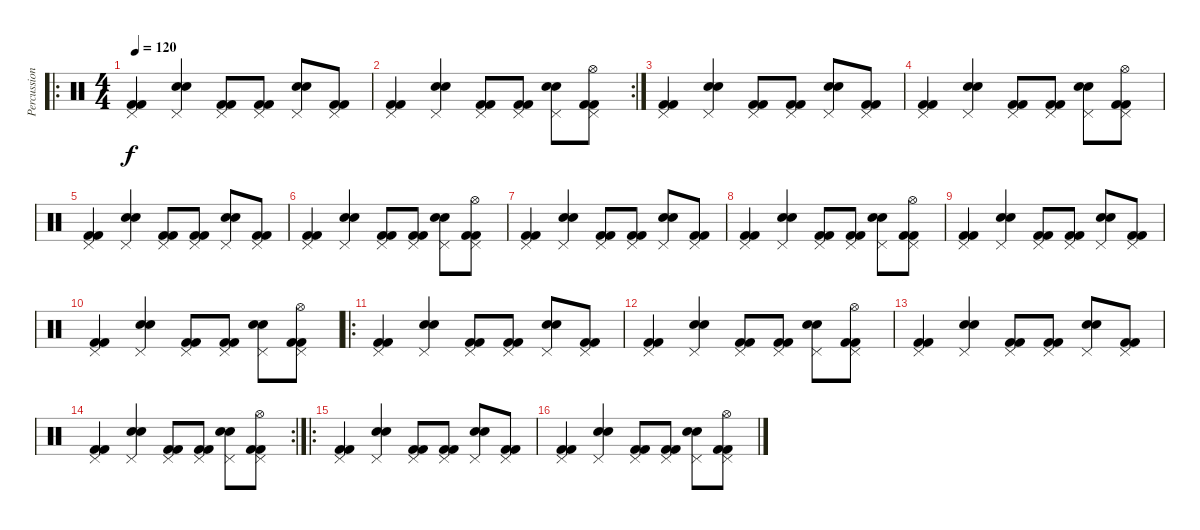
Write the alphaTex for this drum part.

\track ("Percussion" "Percussion") {instrument percussion}
\staff {score}
\articulation defaults
\ro
\ts (4 4)
\tempo 120
\clef neutral
\ks c
("Kick (hit) 2" "Kick (hit) 2" "Pedal Hi-Hat (hit)").4{dy f} ("Snare (hit) 2" "Snare (hit) 2" "Pedal Hi-Hat (hit)").4 ("Kick (hit) 2" "Kick (hit) 2" "Pedal Hi-Hat (hit)").8 ("Kick (hit) 2" "Kick (hit) 2" "Pedal Hi-Hat (hit)").8 ("Snare (hit) 2" "Snare (hit) 2" "Pedal Hi-Hat (hit)").8 ("Kick (hit) 2" "Kick (hit) 2" "Pedal Hi-Hat (hit)").8 |
\rc 2
("Kick (hit) 2" "Kick (hit) 2" "Pedal Hi-Hat (hit)").4 ("Snare (hit) 2" "Snare (hit) 2" "Pedal Hi-Hat (hit)").4 ("Kick (hit) 2" "Kick (hit) 2" "Pedal Hi-Hat (hit)").8 ("Kick (hit) 2" "Kick (hit) 2" "Pedal Hi-Hat (hit)").8 ("Snare (hit) 2" "Snare (hit) 2" "Pedal Hi-Hat (hit)").8 ("Kick (hit) 2" "Kick (hit) 2" "Hi-Hat (open)" "Pedal Hi-Hat (hit)").8 |
("Kick (hit) 2" "Kick (hit) 2" "Pedal Hi-Hat (hit)").4 ("Snare (hit) 2" "Snare (hit) 2" "Pedal Hi-Hat (hit)").4 ("Kick (hit) 2" "Kick (hit) 2" "Pedal Hi-Hat (hit)").8 ("Kick (hit) 2" "Kick (hit) 2" "Pedal Hi-Hat (hit)").8 ("Snare (hit) 2" "Snare (hit) 2" "Pedal Hi-Hat (hit)").8 ("Kick (hit) 2" "Kick (hit) 2" "Pedal Hi-Hat (hit)").8 |
("Kick (hit) 2" "Kick (hit) 2" "Pedal Hi-Hat (hit)").4 ("Snare (hit) 2" "Snare (hit) 2" "Pedal Hi-Hat (hit)").4 ("Kick (hit) 2" "Kick (hit) 2" "Pedal Hi-Hat (hit)").8 ("Kick (hit) 2" "Kick (hit) 2" "Pedal Hi-Hat (hit)").8 ("Snare (hit) 2" "Snare (hit) 2" "Pedal Hi-Hat (hit)").8 ("Kick (hit) 2" "Kick (hit) 2" "Hi-Hat (open)" "Pedal Hi-Hat (hit)").8 |
("Kick (hit) 2" "Kick (hit) 2" "Pedal Hi-Hat (hit)").4 ("Snare (hit) 2" "Snare (hit) 2" "Pedal Hi-Hat (hit)").4 ("Kick (hit) 2" "Kick (hit) 2" "Pedal Hi-Hat (hit)").8 ("Kick (hit) 2" "Kick (hit) 2" "Pedal Hi-Hat (hit)").8 ("Snare (hit) 2" "Snare (hit) 2" "Pedal Hi-Hat (hit)").8 ("Kick (hit) 2" "Kick (hit) 2" "Pedal Hi-Hat (hit)").8 |
("Kick (hit) 2" "Kick (hit) 2" "Pedal Hi-Hat (hit)").4 ("Snare (hit) 2" "Snare (hit) 2" "Pedal Hi-Hat (hit)").4 ("Kick (hit) 2" "Kick (hit) 2" "Pedal Hi-Hat (hit)").8 ("Kick (hit) 2" "Kick (hit) 2" "Pedal Hi-Hat (hit)").8 ("Snare (hit) 2" "Snare (hit) 2" "Pedal Hi-Hat (hit)").8 ("Kick (hit) 2" "Kick (hit) 2" "Hi-Hat (open)" "Pedal Hi-Hat (hit)").8 |
("Kick (hit) 2" "Kick (hit) 2" "Pedal Hi-Hat (hit)").4 ("Snare (hit) 2" "Snare (hit) 2" "Pedal Hi-Hat (hit)").4 ("Kick (hit) 2" "Kick (hit) 2" "Pedal Hi-Hat (hit)").8 ("Kick (hit) 2" "Kick (hit) 2" "Pedal Hi-Hat (hit)").8 ("Snare (hit) 2" "Snare (hit) 2" "Pedal Hi-Hat (hit)").8 ("Kick (hit) 2" "Kick (hit) 2" "Pedal Hi-Hat (hit)").8 |
("Kick (hit) 2" "Kick (hit) 2" "Pedal Hi-Hat (hit)").4 ("Snare (hit) 2" "Snare (hit) 2" "Pedal Hi-Hat (hit)").4 ("Kick (hit) 2" "Kick (hit) 2" "Pedal Hi-Hat (hit)").8 ("Kick (hit) 2" "Kick (hit) 2" "Pedal Hi-Hat (hit)").8 ("Snare (hit) 2" "Snare (hit) 2" "Pedal Hi-Hat (hit)").8 ("Kick (hit) 2" "Kick (hit) 2" "Hi-Hat (open)" "Pedal Hi-Hat (hit)").8 |
("Kick (hit) 2" "Kick (hit) 2" "Pedal Hi-Hat (hit)").4 ("Snare (hit) 2" "Snare (hit) 2" "Pedal Hi-Hat (hit)").4 ("Kick (hit) 2" "Kick (hit) 2" "Pedal Hi-Hat (hit)").8 ("Kick (hit) 2" "Kick (hit) 2" "Pedal Hi-Hat (hit)").8 ("Snare (hit) 2" "Snare (hit) 2" "Pedal Hi-Hat (hit)").8 ("Kick (hit) 2" "Kick (hit) 2" "Pedal Hi-Hat (hit)").8 |
("Kick (hit) 2" "Kick (hit) 2" "Pedal Hi-Hat (hit)").4 ("Snare (hit) 2" "Snare (hit) 2" "Pedal Hi-Hat (hit)").4 ("Kick (hit) 2" "Kick (hit) 2" "Pedal Hi-Hat (hit)").8 ("Kick (hit) 2" "Kick (hit) 2" "Pedal Hi-Hat (hit)").8 ("Snare (hit) 2" "Snare (hit) 2" "Pedal Hi-Hat (hit)").8 ("Kick (hit) 2" "Kick (hit) 2" "Hi-Hat (open)" "Pedal Hi-Hat (hit)").8 |
\ro
("Kick (hit) 2" "Kick (hit) 2" "Pedal Hi-Hat (hit)").4 ("Snare (hit) 2" "Snare (hit) 2" "Pedal Hi-Hat (hit)").4 ("Kick (hit) 2" "Kick (hit) 2" "Pedal Hi-Hat (hit)").8 ("Kick (hit) 2" "Kick (hit) 2" "Pedal Hi-Hat (hit)").8 ("Snare (hit) 2" "Snare (hit) 2" "Pedal Hi-Hat (hit)").8 ("Kick (hit) 2" "Kick (hit) 2" "Pedal Hi-Hat (hit)").8 |
("Kick (hit) 2" "Kick (hit) 2" "Pedal Hi-Hat (hit)").4 ("Snare (hit) 2" "Snare (hit) 2" "Pedal Hi-Hat (hit)").4 ("Kick (hit) 2" "Kick (hit) 2" "Pedal Hi-Hat (hit)").8 ("Kick (hit) 2" "Kick (hit) 2" "Pedal Hi-Hat (hit)").8 ("Snare (hit) 2" "Snare (hit) 2" "Pedal Hi-Hat (hit)").8 ("Kick (hit) 2" "Kick (hit) 2" "Hi-Hat (open)" "Pedal Hi-Hat (hit)").8 |
("Kick (hit) 2" "Kick (hit) 2" "Pedal Hi-Hat (hit)").4 ("Snare (hit) 2" "Snare (hit) 2" "Pedal Hi-Hat (hit)").4 ("Kick (hit) 2" "Kick (hit) 2" "Pedal Hi-Hat (hit)").8 ("Kick (hit) 2" "Kick (hit) 2" "Pedal Hi-Hat (hit)").8 ("Snare (hit) 2" "Snare (hit) 2" "Pedal Hi-Hat (hit)").8 ("Kick (hit) 2" "Kick (hit) 2" "Pedal Hi-Hat (hit)").8 |
\rc 2
("Kick (hit) 2" "Kick (hit) 2" "Pedal Hi-Hat (hit)").4 ("Snare (hit) 2" "Snare (hit) 2" "Pedal Hi-Hat (hit)").4 ("Kick (hit) 2" "Kick (hit) 2" "Pedal Hi-Hat (hit)").8 ("Kick (hit) 2" "Kick (hit) 2" "Pedal Hi-Hat (hit)").8 ("Snare (hit) 2" "Snare (hit) 2" "Pedal Hi-Hat (hit)").8 ("Kick (hit) 2" "Kick (hit) 2" "Hi-Hat (open)" "Pedal Hi-Hat (hit)").8 |
\ro
("Kick (hit) 2" "Kick (hit) 2" "Pedal Hi-Hat (hit)").4 ("Snare (hit) 2" "Snare (hit) 2" "Pedal Hi-Hat (hit)").4 ("Kick (hit) 2" "Kick (hit) 2" "Pedal Hi-Hat (hit)").8 ("Kick (hit) 2" "Kick (hit) 2" "Pedal Hi-Hat (hit)").8 ("Snare (hit) 2" "Snare (hit) 2" "Pedal Hi-Hat (hit)").8 ("Kick (hit) 2" "Kick (hit) 2" "Pedal Hi-Hat (hit)").8 |
("Kick (hit) 2" "Kick (hit) 2" "Pedal Hi-Hat (hit)").4 ("Snare (hit) 2" "Snare (hit) 2" "Pedal Hi-Hat (hit)").4 ("Kick (hit) 2" "Kick (hit) 2" "Pedal Hi-Hat (hit)").8 ("Kick (hit) 2" "Kick (hit) 2" "Pedal Hi-Hat (hit)").8 ("Snare (hit) 2" "Snare (hit) 2" "Pedal Hi-Hat (hit)").8 ("Kick (hit) 2" "Kick (hit) 2" "Hi-Hat (open)" "Pedal Hi-Hat (hit)").8
